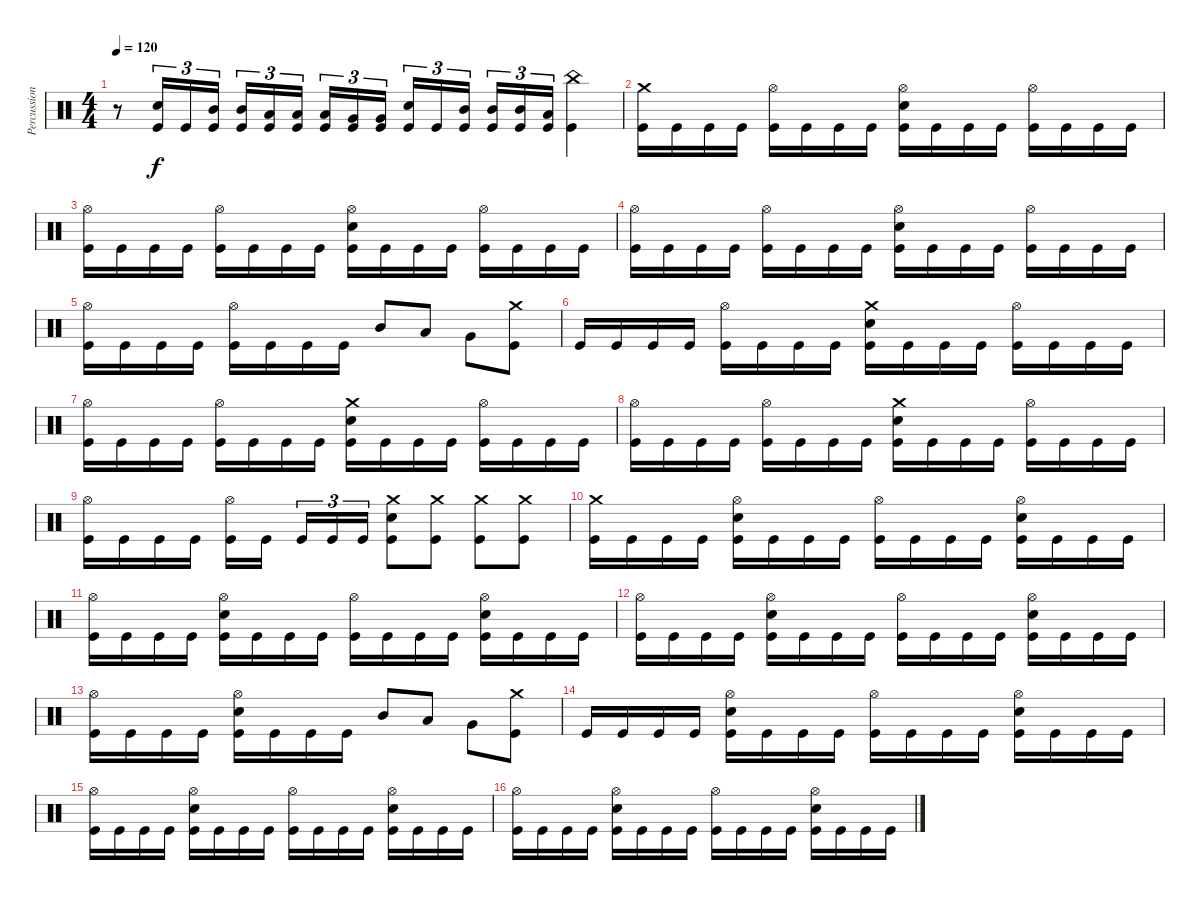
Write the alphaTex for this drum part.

\track ("Percussions" "Percussion") {instrument percussion}
\staff {score}
\articulation defaults
\ts (4 4)
\tempo 120
\clef neutral
\ks c
r.8{dy f} ("Kick (hit)" "Electric Snare (hit)").16{tu (3 2)} "Kick (hit)".16{tu (3 2)} ("Kick (hit)" "Mid Tom (hit)").16{tu (3 2)} ("Kick (hit)" "Mid Tom (hit)").16{tu (3 2)} ("Kick (hit)" "Low Tom (hit)").16{tu (3 2)} ("Kick (hit)" "Low Tom (hit)").16{tu (3 2)} ("Kick (hit)" "Low Tom (hit)").16{tu (3 2)} ("Kick (hit)" "Very Low Tom (hit)").16{tu (3 2)} ("Kick (hit)" "Very Low Tom (hit)").16{tu (3 2)} ("Kick (hit)" "Electric Snare (hit)").16{tu (3 2)} "Kick (hit)".16{tu (3 2)} ("Kick (hit)" "Mid Tom (hit)").16{tu (3 2)} ("Kick (hit)" "Mid Tom (hit)").16{tu (3 2)} ("Kick (hit)" "Mid Tom (hit)").16{tu (3 2)} ("Kick (hit)" "Low Tom (hit)").16{tu (3 2)} ("Kick (hit)" "China (hit)").4 |
("Kick (hit)" "Crash medium (hit)").16 "Kick (hit)".16 "Kick (hit)".16 "Kick (hit)".16 ("Kick (hit)" "Hi-Hat (open)").16 "Kick (hit)".16 "Kick (hit)".16 "Kick (hit)".16 ("Kick (hit)" "Electric Snare (hit)" "Hi-Hat (open)").16 "Kick (hit)".16 "Kick (hit)".16 "Kick (hit)".16 ("Kick (hit)" "Hi-Hat (open)").16 "Kick (hit)".16 "Kick (hit)".16 "Kick (hit)".16 |
("Kick (hit)" "Hi-Hat (open)").16 "Kick (hit)".16 "Kick (hit)".16 "Kick (hit)".16 ("Kick (hit)" "Hi-Hat (open)").16 "Kick (hit)".16 "Kick (hit)".16 "Kick (hit)".16 ("Kick (hit)" "Electric Snare (hit)" "Hi-Hat (open)").16 "Kick (hit)".16 "Kick (hit)".16 "Kick (hit)".16 ("Kick (hit)" "Hi-Hat (open)").16 "Kick (hit)".16 "Kick (hit)".16 "Kick (hit)".16 |
("Kick (hit)" "Hi-Hat (open)").16 "Kick (hit)".16 "Kick (hit)".16 "Kick (hit)".16 ("Kick (hit)" "Hi-Hat (open)").16 "Kick (hit)".16 "Kick (hit)".16 "Kick (hit)".16 ("Kick (hit)" "Electric Snare (hit)" "Hi-Hat (open)").16 "Kick (hit)".16 "Kick (hit)".16 "Kick (hit)".16 ("Kick (hit)" "Hi-Hat (open)").16 "Kick (hit)".16 "Kick (hit)".16 "Kick (hit)".16 |
("Kick (hit)" "Hi-Hat (open)").16 "Kick (hit)".16 "Kick (hit)".16 "Kick (hit)".16 ("Kick (hit)" "Hi-Hat (open)").16 "Kick (hit)".16 "Kick (hit)".16 "Kick (hit)".16 "Mid Tom (hit)".8 "Low Tom (hit)".8 "Very Low Tom (hit)".8 ("Kick (hit)" "Crash medium (hit)").8 |
"Kick (hit)".16 "Kick (hit)".16 "Kick (hit)".16 "Kick (hit)".16 ("Kick (hit)" "Hi-Hat (open)").16 "Kick (hit)".16 "Kick (hit)".16 "Kick (hit)".16 ("Kick (hit)" "Electric Snare (hit)" "Crash medium (hit)").16 "Kick (hit)".16 "Kick (hit)".16 "Kick (hit)".16 ("Kick (hit)" "Hi-Hat (open)").16 "Kick (hit)".16 "Kick (hit)".16 "Kick (hit)".16 |
("Kick (hit)" "Hi-Hat (open)").16 "Kick (hit)".16 "Kick (hit)".16 "Kick (hit)".16 ("Kick (hit)" "Hi-Hat (open)").16 "Kick (hit)".16 "Kick (hit)".16 "Kick (hit)".16 ("Kick (hit)" "Electric Snare (hit)" "Crash medium (hit)").16 "Kick (hit)".16 "Kick (hit)".16 "Kick (hit)".16 ("Kick (hit)" "Hi-Hat (open)").16 "Kick (hit)".16 "Kick (hit)".16 "Kick (hit)".16 |
("Kick (hit)" "Hi-Hat (open)").16 "Kick (hit)".16 "Kick (hit)".16 "Kick (hit)".16 ("Kick (hit)" "Hi-Hat (open)").16 "Kick (hit)".16 "Kick (hit)".16 "Kick (hit)".16 ("Kick (hit)" "Electric Snare (hit)" "Crash medium (hit)").16 "Kick (hit)".16 "Kick (hit)".16 "Kick (hit)".16 ("Kick (hit)" "Hi-Hat (open)").16 "Kick (hit)".16 "Kick (hit)".16 "Kick (hit)".16 |
("Kick (hit)" "Hi-Hat (open)").16 "Kick (hit)".16 "Kick (hit)".16 "Kick (hit)".16 ("Kick (hit)" "Hi-Hat (open)").16 "Kick (hit)".16 "Kick (hit)".16{tu (3 2)} "Kick (hit)".16{tu (3 2)} "Kick (hit)".16{tu (3 2)} ("Kick (hit)" "Electric Snare (hit)" "Crash medium (hit)").8 ("Kick (hit)" "Crash medium (hit)").8 ("Kick (hit)" "Crash medium (hit)").8 ("Kick (hit)" "Crash medium (hit)").8 |
("Kick (hit)" "Crash medium (hit)").16 "Kick (hit)".16 "Kick (hit)".16 "Kick (hit)".16 ("Kick (hit)" "Electric Snare (hit)" "Hi-Hat (open)").16 "Kick (hit)".16 "Kick (hit)".16 "Kick (hit)".16 ("Kick (hit)" "Hi-Hat (open)").16 "Kick (hit)".16 "Kick (hit)".16 "Kick (hit)".16 ("Kick (hit)" "Electric Snare (hit)" "Hi-Hat (open)").16 "Kick (hit)".16 "Kick (hit)".16 "Kick (hit)".16 |
("Kick (hit)" "Hi-Hat (open)").16 "Kick (hit)".16 "Kick (hit)".16 "Kick (hit)".16 ("Kick (hit)" "Electric Snare (hit)" "Hi-Hat (open)").16 "Kick (hit)".16 "Kick (hit)".16 "Kick (hit)".16 ("Kick (hit)" "Hi-Hat (open)").16 "Kick (hit)".16 "Kick (hit)".16 "Kick (hit)".16 ("Kick (hit)" "Electric Snare (hit)" "Hi-Hat (open)").16 "Kick (hit)".16 "Kick (hit)".16 "Kick (hit)".16 |
("Kick (hit)" "Hi-Hat (open)").16 "Kick (hit)".16 "Kick (hit)".16 "Kick (hit)".16 ("Kick (hit)" "Electric Snare (hit)" "Hi-Hat (open)").16 "Kick (hit)".16 "Kick (hit)".16 "Kick (hit)".16 ("Kick (hit)" "Hi-Hat (open)").16 "Kick (hit)".16 "Kick (hit)".16 "Kick (hit)".16 ("Kick (hit)" "Electric Snare (hit)" "Hi-Hat (open)").16 "Kick (hit)".16 "Kick (hit)".16 "Kick (hit)".16 |
("Kick (hit)" "Hi-Hat (open)").16 "Kick (hit)".16 "Kick (hit)".16 "Kick (hit)".16 ("Kick (hit)" "Electric Snare (hit)" "Hi-Hat (open)").16 "Kick (hit)".16 "Kick (hit)".16 "Kick (hit)".16 "Mid Tom (hit)".8 "Low Tom (hit)".8 "Very Low Tom (hit)".8 ("Kick (hit)" "Crash medium (hit)").8 |
"Kick (hit)".16 "Kick (hit)".16 "Kick (hit)".16 "Kick (hit)".16 ("Kick (hit)" "Electric Snare (hit)" "Hi-Hat (open)").16 "Kick (hit)".16 "Kick (hit)".16 "Kick (hit)".16 ("Kick (hit)" "Hi-Hat (open)").16 "Kick (hit)".16 "Kick (hit)".16 "Kick (hit)".16 ("Kick (hit)" "Electric Snare (hit)" "Hi-Hat (open)").16 "Kick (hit)".16 "Kick (hit)".16 "Kick (hit)".16 |
("Kick (hit)" "Hi-Hat (open)").16 "Kick (hit)".16 "Kick (hit)".16 "Kick (hit)".16 ("Kick (hit)" "Electric Snare (hit)" "Hi-Hat (open)").16 "Kick (hit)".16 "Kick (hit)".16 "Kick (hit)".16 ("Kick (hit)" "Hi-Hat (open)").16 "Kick (hit)".16 "Kick (hit)".16 "Kick (hit)".16 ("Kick (hit)" "Electric Snare (hit)" "Hi-Hat (open)").16 "Kick (hit)".16 "Kick (hit)".16 "Kick (hit)".16 |
("Kick (hit)" "Hi-Hat (open)").16 "Kick (hit)".16 "Kick (hit)".16 "Kick (hit)".16 ("Kick (hit)" "Electric Snare (hit)" "Hi-Hat (open)").16 "Kick (hit)".16 "Kick (hit)".16 "Kick (hit)".16 ("Kick (hit)" "Hi-Hat (open)").16 "Kick (hit)".16 "Kick (hit)".16 "Kick (hit)".16 ("Kick (hit)" "Electric Snare (hit)" "Hi-Hat (open)").16 "Kick (hit)".16 "Kick (hit)".16 "Kick (hit)".16
